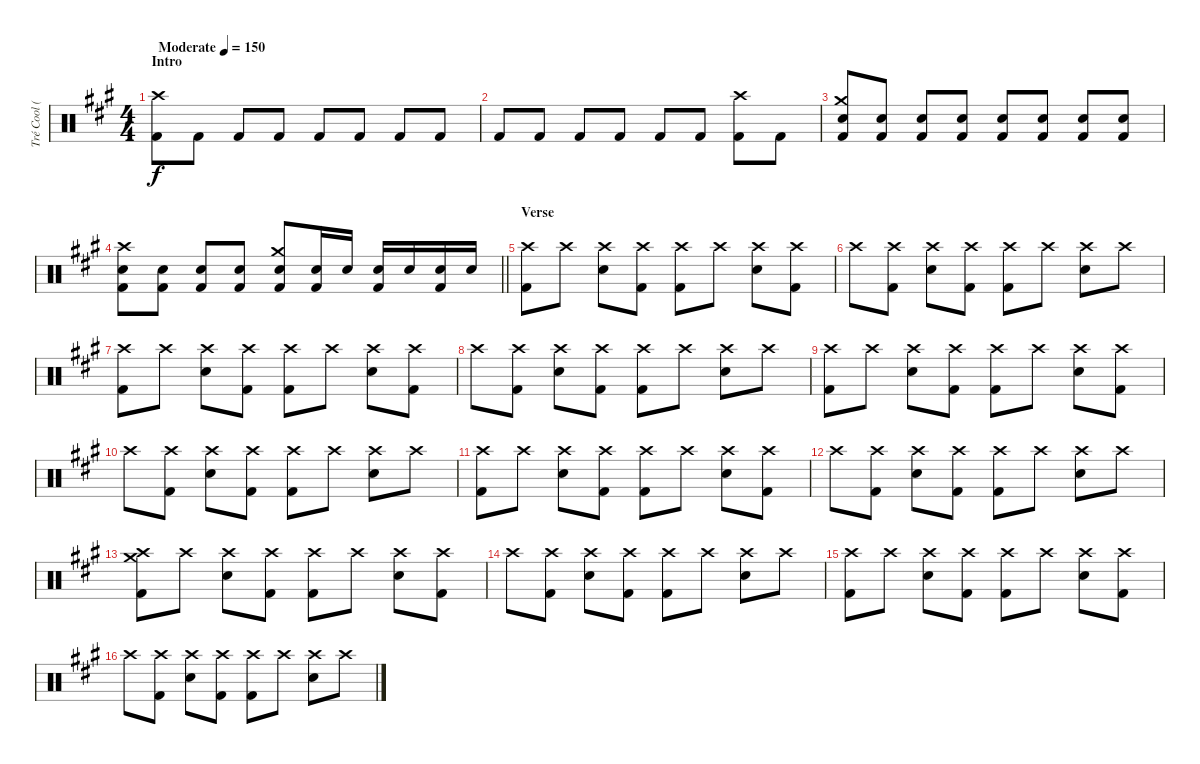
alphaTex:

\track ("Tré Cool (Drums)" "Tré Cool (") {instrument percussion}
\staff {score}
\articulation defaults
\ts (4 4)
\section ("" "Intro")
\tempo (150 "Moderate")
\clef neutral
\ks a
("Crash high (hit)" "Kick (hit) 2").8{dy f} "Kick (hit) 2".8 "Kick (hit) 2".8 "Kick (hit) 2".8 "Kick (hit) 2".8 "Kick (hit) 2".8 "Kick (hit) 2".8 "Kick (hit) 2".8 |
"Kick (hit) 2".8 "Kick (hit) 2".8 "Kick (hit) 2".8 "Kick (hit) 2".8 "Kick (hit) 2".8 "Kick (hit) 2".8 ("Crash high (hit)" "Kick (hit) 2").8 "Kick (hit) 2".8 |
("Crash medium (hit)" "Snare (hit) 2" "Kick (hit) 2").8 ("Snare (hit) 2" "Kick (hit) 2").8 ("Snare (hit) 2" "Kick (hit) 2").8 ("Snare (hit) 2" "Kick (hit) 2").8 ("Snare (hit) 2" "Kick (hit) 2").8 ("Snare (hit) 2" "Kick (hit) 2").8 ("Snare (hit) 2" "Kick (hit) 2").8 ("Snare (hit) 2" "Kick (hit) 2").8 |
\barLineRight lightlight
("Crash high (hit)" "Snare (hit) 2" "Kick (hit) 2").8 ("Snare (hit) 2" "Kick (hit) 2").8 ("Snare (hit) 2" "Kick (hit) 2").8 ("Snare (hit) 2" "Kick (hit) 2").8 ("Crash medium (hit)" "Snare (hit) 2" "Kick (hit) 2").8 ("Snare (hit) 2" "Kick (hit) 2").16 "Snare (hit) 2".16 ("Snare (hit) 2" "Kick (hit) 2").16 "Snare (hit) 2".16 ("Snare (hit) 2" "Kick (hit) 2").16 "Snare (hit) 2".16 |
\section ("" "Verse")
("Crash high (hit)" "Kick (hit) 2").8 "Crash high (hit)".8 ("Crash high (hit)" "Snare (hit) 2").8 ("Crash high (hit)" "Kick (hit) 2").8 ("Crash high (hit)" "Kick (hit) 2").8 "Crash high (hit)".8 ("Crash high (hit)" "Snare (hit) 2").8 ("Crash high (hit)" "Kick (hit) 2").8 |
"Crash high (hit)".8 ("Crash high (hit)" "Kick (hit) 2").8 ("Crash high (hit)" "Snare (hit) 2").8 ("Crash high (hit)" "Kick (hit) 2").8 ("Crash high (hit)" "Kick (hit) 2").8 "Crash high (hit)".8 ("Crash high (hit)" "Snare (hit) 2").8 "Crash high (hit)".8 |
("Crash high (hit)" "Kick (hit) 2").8 "Crash high (hit)".8 ("Crash high (hit)" "Snare (hit) 2").8 ("Crash high (hit)" "Kick (hit) 2").8 ("Crash high (hit)" "Kick (hit) 2").8 "Crash high (hit)".8 ("Crash high (hit)" "Snare (hit) 2").8 ("Crash high (hit)" "Kick (hit) 2").8 |
"Crash high (hit)".8 ("Crash high (hit)" "Kick (hit) 2").8 ("Crash high (hit)" "Snare (hit) 2").8 ("Crash high (hit)" "Kick (hit) 2").8 ("Crash high (hit)" "Kick (hit) 2").8 "Crash high (hit)".8 ("Crash high (hit)" "Snare (hit) 2").8 "Crash high (hit)".8 |
("Crash high (hit)" "Kick (hit) 2").8 "Crash high (hit)".8 ("Crash high (hit)" "Snare (hit) 2").8 ("Crash high (hit)" "Kick (hit) 2").8 ("Crash high (hit)" "Kick (hit) 2").8 "Crash high (hit)".8 ("Crash high (hit)" "Snare (hit) 2").8 ("Crash high (hit)" "Kick (hit) 2").8 |
"Crash high (hit)".8 ("Crash high (hit)" "Kick (hit) 2").8 ("Crash high (hit)" "Snare (hit) 2").8 ("Crash high (hit)" "Kick (hit) 2").8 ("Crash high (hit)" "Kick (hit) 2").8 "Crash high (hit)".8 ("Crash high (hit)" "Snare (hit) 2").8 "Crash high (hit)".8 |
("Crash high (hit)" "Kick (hit) 2").8 "Crash high (hit)".8 ("Crash high (hit)" "Snare (hit) 2").8 ("Crash high (hit)" "Kick (hit) 2").8 ("Crash high (hit)" "Kick (hit) 2").8 "Crash high (hit)".8 ("Crash high (hit)" "Snare (hit) 2").8 ("Crash high (hit)" "Kick (hit) 2").8 |
"Crash high (hit)".8 ("Crash high (hit)" "Kick (hit) 2").8 ("Crash high (hit)" "Snare (hit) 2").8 ("Crash high (hit)" "Kick (hit) 2").8 ("Crash high (hit)" "Kick (hit) 2").8 "Crash high (hit)".8 ("Crash high (hit)" "Snare (hit) 2").8 "Crash high (hit)".8 |
("Crash high (hit)" "Crash medium (hit)" "Kick (hit) 2").8 "Crash high (hit)".8 ("Crash high (hit)" "Snare (hit) 2").8 ("Crash high (hit)" "Kick (hit) 2").8 ("Crash high (hit)" "Kick (hit) 2").8 "Crash high (hit)".8 ("Crash high (hit)" "Snare (hit) 2").8 ("Crash high (hit)" "Kick (hit) 2").8 |
"Crash high (hit)".8 ("Crash high (hit)" "Kick (hit) 2").8 ("Crash high (hit)" "Snare (hit) 2").8 ("Crash high (hit)" "Kick (hit) 2").8 ("Crash high (hit)" "Kick (hit) 2").8 "Crash high (hit)".8 ("Crash high (hit)" "Snare (hit) 2").8 "Crash high (hit)".8 |
("Crash high (hit)" "Kick (hit) 2").8 "Crash high (hit)".8 ("Crash high (hit)" "Snare (hit) 2").8 ("Crash high (hit)" "Kick (hit) 2").8 ("Crash high (hit)" "Kick (hit) 2").8 "Crash high (hit)".8 ("Crash high (hit)" "Snare (hit) 2").8 ("Crash high (hit)" "Kick (hit) 2").8 |
"Crash high (hit)".8 ("Crash high (hit)" "Kick (hit) 2").8 ("Crash high (hit)" "Snare (hit) 2").8 ("Crash high (hit)" "Kick (hit) 2").8 ("Crash high (hit)" "Kick (hit) 2").8 "Crash high (hit)".8 ("Crash high (hit)" "Snare (hit) 2").8 "Crash high (hit)".8
